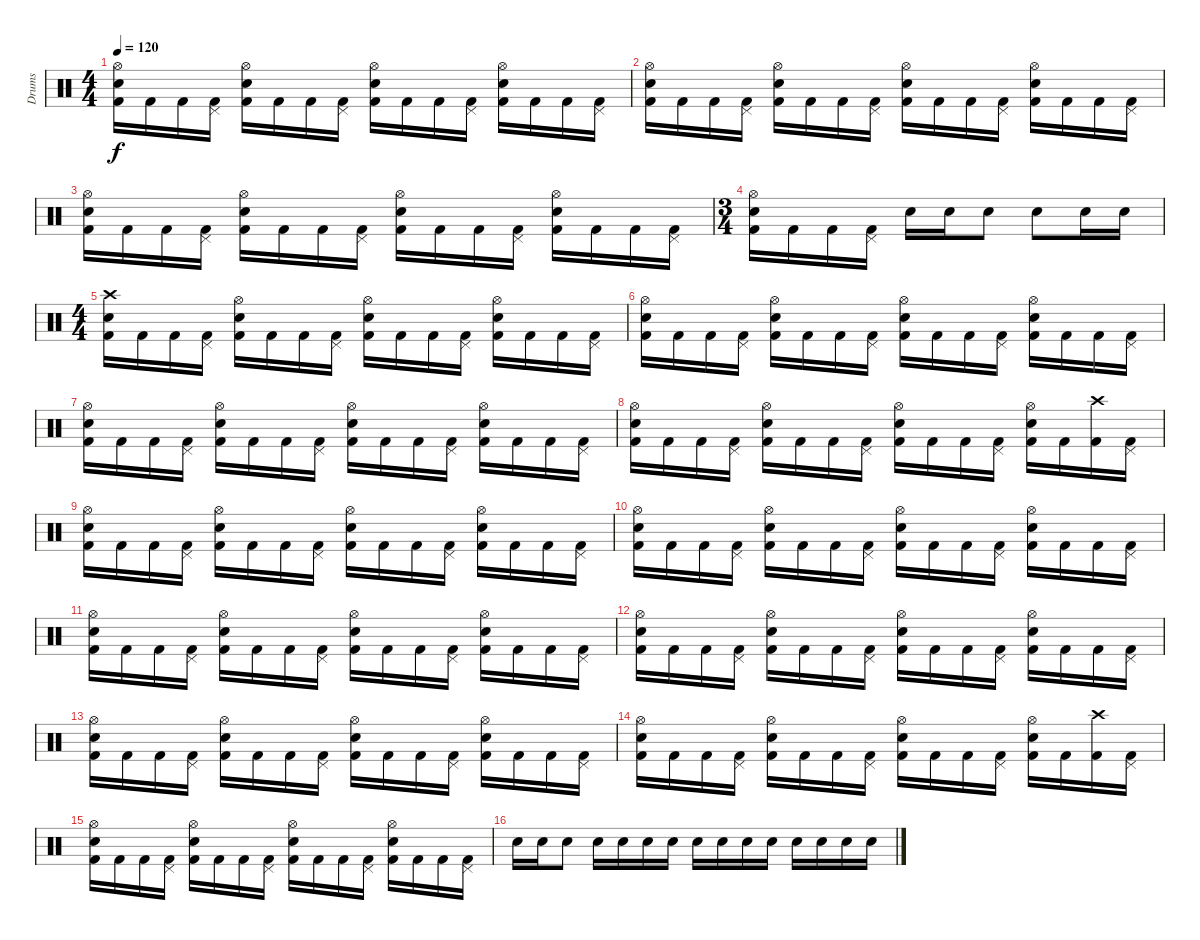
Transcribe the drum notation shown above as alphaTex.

\track ("Drums" "Drums") {instrument percussion}
\staff {score}
\articulation defaults
\ts (4 4)
\tempo 120
\clef neutral
\ks c
("Hi-Hat (open)" "Snare (hit) 2" "Kick (hit) 2").16{dy f} "Kick (hit) 2".16 "Kick (hit) 2".16 ("Pedal Hi-Hat (hit)" "Kick (hit) 2").16 ("Hi-Hat (open)" "Snare (hit) 2" "Kick (hit) 2").16 "Kick (hit) 2".16 "Kick (hit) 2".16 ("Pedal Hi-Hat (hit)" "Kick (hit) 2").16 ("Hi-Hat (open)" "Snare (hit) 2" "Kick (hit) 2").16 "Kick (hit) 2".16 "Kick (hit) 2".16 ("Pedal Hi-Hat (hit)" "Kick (hit) 2").16 ("Hi-Hat (open)" "Snare (hit) 2" "Kick (hit) 2").16 "Kick (hit) 2".16 "Kick (hit) 2".16 ("Pedal Hi-Hat (hit)" "Kick (hit) 2").16 |
("Hi-Hat (open)" "Snare (hit) 2" "Kick (hit) 2").16 "Kick (hit) 2".16 "Kick (hit) 2".16 ("Pedal Hi-Hat (hit)" "Kick (hit) 2").16 ("Hi-Hat (open)" "Snare (hit) 2" "Kick (hit) 2").16 "Kick (hit) 2".16 "Kick (hit) 2".16 ("Pedal Hi-Hat (hit)" "Kick (hit) 2").16 ("Hi-Hat (open)" "Snare (hit) 2" "Kick (hit) 2").16 "Kick (hit) 2".16 "Kick (hit) 2".16 ("Pedal Hi-Hat (hit)" "Kick (hit) 2").16 ("Hi-Hat (open)" "Snare (hit) 2" "Kick (hit) 2").16 "Kick (hit) 2".16 "Kick (hit) 2".16 ("Pedal Hi-Hat (hit)" "Kick (hit) 2").16 |
("Hi-Hat (open)" "Snare (hit) 2" "Kick (hit) 2").16 "Kick (hit) 2".16 "Kick (hit) 2".16 ("Pedal Hi-Hat (hit)" "Kick (hit) 2").16 ("Hi-Hat (open)" "Snare (hit) 2" "Kick (hit) 2").16 "Kick (hit) 2".16 "Kick (hit) 2".16 ("Pedal Hi-Hat (hit)" "Kick (hit) 2").16 ("Hi-Hat (open)" "Snare (hit) 2" "Kick (hit) 2").16 "Kick (hit) 2".16 "Kick (hit) 2".16 ("Pedal Hi-Hat (hit)" "Kick (hit) 2").16 ("Hi-Hat (open)" "Snare (hit) 2" "Kick (hit) 2").16 "Kick (hit) 2".16 "Kick (hit) 2".16 ("Pedal Hi-Hat (hit)" "Kick (hit) 2").16 |
\ts (3 4)
("Hi-Hat (open)" "Snare (hit) 2" "Kick (hit) 2").16 "Kick (hit) 2".16 "Kick (hit) 2".16 ("Pedal Hi-Hat (hit)" "Kick (hit) 2").16 "Electric Snare (hit)".16 "Electric Snare (hit)".16 "Electric Snare (hit)".8 "Electric Snare (hit)".8 "Electric Snare (hit)".16 "Electric Snare (hit)".16 |
\ts (4 4)
("Crash high (hit)" "Snare (hit) 2" "Kick (hit) 2").16 "Kick (hit) 2".16 "Kick (hit) 2".16 ("Pedal Hi-Hat (hit)" "Kick (hit) 2").16 ("Hi-Hat (open)" "Snare (hit) 2" "Kick (hit) 2").16 "Kick (hit) 2".16 "Kick (hit) 2".16 ("Pedal Hi-Hat (hit)" "Kick (hit) 2").16 ("Hi-Hat (open)" "Snare (hit) 2" "Kick (hit) 2").16 "Kick (hit) 2".16 "Kick (hit) 2".16 ("Pedal Hi-Hat (hit)" "Kick (hit) 2").16 ("Hi-Hat (open)" "Snare (hit) 2" "Kick (hit) 2").16 "Kick (hit) 2".16 "Kick (hit) 2".16 ("Pedal Hi-Hat (hit)" "Kick (hit) 2").16 |
("Hi-Hat (open)" "Snare (hit) 2" "Kick (hit) 2").16 "Kick (hit) 2".16 "Kick (hit) 2".16 ("Pedal Hi-Hat (hit)" "Kick (hit) 2").16 ("Hi-Hat (open)" "Snare (hit) 2" "Kick (hit) 2").16 "Kick (hit) 2".16 "Kick (hit) 2".16 ("Pedal Hi-Hat (hit)" "Kick (hit) 2").16 ("Hi-Hat (open)" "Snare (hit) 2" "Kick (hit) 2").16 "Kick (hit) 2".16 "Kick (hit) 2".16 ("Pedal Hi-Hat (hit)" "Kick (hit) 2").16 ("Hi-Hat (open)" "Snare (hit) 2" "Kick (hit) 2").16 "Kick (hit) 2".16 "Kick (hit) 2".16 ("Pedal Hi-Hat (hit)" "Kick (hit) 2").16 |
("Hi-Hat (open)" "Snare (hit) 2" "Kick (hit) 2").16 "Kick (hit) 2".16 "Kick (hit) 2".16 ("Pedal Hi-Hat (hit)" "Kick (hit) 2").16 ("Hi-Hat (open)" "Snare (hit) 2" "Kick (hit) 2").16 "Kick (hit) 2".16 "Kick (hit) 2".16 ("Pedal Hi-Hat (hit)" "Kick (hit) 2").16 ("Hi-Hat (open)" "Snare (hit) 2" "Kick (hit) 2").16 "Kick (hit) 2".16 "Kick (hit) 2".16 ("Pedal Hi-Hat (hit)" "Kick (hit) 2").16 ("Hi-Hat (open)" "Snare (hit) 2" "Kick (hit) 2").16 "Kick (hit) 2".16 "Kick (hit) 2".16 ("Pedal Hi-Hat (hit)" "Kick (hit) 2").16 |
("Hi-Hat (open)" "Snare (hit) 2" "Kick (hit) 2").16 "Kick (hit) 2".16 "Kick (hit) 2".16 ("Pedal Hi-Hat (hit)" "Kick (hit) 2").16 ("Hi-Hat (open)" "Snare (hit) 2" "Kick (hit) 2").16 "Kick (hit) 2".16 "Kick (hit) 2".16 ("Pedal Hi-Hat (hit)" "Kick (hit) 2").16 ("Hi-Hat (open)" "Snare (hit) 2" "Kick (hit) 2").16 "Kick (hit) 2".16 "Kick (hit) 2".16 ("Pedal Hi-Hat (hit)" "Kick (hit) 2").16 ("Hi-Hat (open)" "Snare (hit) 2" "Kick (hit) 2").16 "Kick (hit) 2".16 ("Crash high (hit)" "Kick (hit) 2").16 ("Pedal Hi-Hat (hit)" "Kick (hit) 2").16 |
("Hi-Hat (open)" "Snare (hit) 2" "Kick (hit) 2").16 "Kick (hit) 2".16 "Kick (hit) 2".16 ("Pedal Hi-Hat (hit)" "Kick (hit) 2").16 ("Hi-Hat (open)" "Snare (hit) 2" "Kick (hit) 2").16 "Kick (hit) 2".16 "Kick (hit) 2".16 ("Pedal Hi-Hat (hit)" "Kick (hit) 2").16 ("Hi-Hat (open)" "Snare (hit) 2" "Kick (hit) 2").16 "Kick (hit) 2".16 "Kick (hit) 2".16 ("Pedal Hi-Hat (hit)" "Kick (hit) 2").16 ("Hi-Hat (open)" "Snare (hit) 2" "Kick (hit) 2").16 "Kick (hit) 2".16 "Kick (hit) 2".16 ("Pedal Hi-Hat (hit)" "Kick (hit) 2").16 |
("Hi-Hat (open)" "Snare (hit) 2" "Kick (hit) 2").16 "Kick (hit) 2".16 "Kick (hit) 2".16 ("Pedal Hi-Hat (hit)" "Kick (hit) 2").16 ("Hi-Hat (open)" "Snare (hit) 2" "Kick (hit) 2").16 "Kick (hit) 2".16 "Kick (hit) 2".16 ("Pedal Hi-Hat (hit)" "Kick (hit) 2").16 ("Hi-Hat (open)" "Snare (hit) 2" "Kick (hit) 2").16 "Kick (hit) 2".16 "Kick (hit) 2".16 ("Pedal Hi-Hat (hit)" "Kick (hit) 2").16 ("Hi-Hat (open)" "Snare (hit) 2" "Kick (hit) 2").16 "Kick (hit) 2".16 "Kick (hit) 2".16 ("Pedal Hi-Hat (hit)" "Kick (hit) 2").16 |
("Hi-Hat (open)" "Snare (hit) 2" "Kick (hit) 2").16 "Kick (hit) 2".16 "Kick (hit) 2".16 ("Pedal Hi-Hat (hit)" "Kick (hit) 2").16 ("Hi-Hat (open)" "Snare (hit) 2" "Kick (hit) 2").16 "Kick (hit) 2".16 "Kick (hit) 2".16 ("Pedal Hi-Hat (hit)" "Kick (hit) 2").16 ("Hi-Hat (open)" "Snare (hit) 2" "Kick (hit) 2").16 "Kick (hit) 2".16 "Kick (hit) 2".16 ("Pedal Hi-Hat (hit)" "Kick (hit) 2").16 ("Hi-Hat (open)" "Snare (hit) 2" "Kick (hit) 2").16 "Kick (hit) 2".16 "Kick (hit) 2".16 ("Pedal Hi-Hat (hit)" "Kick (hit) 2").16 |
("Hi-Hat (open)" "Snare (hit) 2" "Kick (hit) 2").16 "Kick (hit) 2".16 "Kick (hit) 2".16 ("Pedal Hi-Hat (hit)" "Kick (hit) 2").16 ("Hi-Hat (open)" "Snare (hit) 2" "Kick (hit) 2").16 "Kick (hit) 2".16 "Kick (hit) 2".16 ("Pedal Hi-Hat (hit)" "Kick (hit) 2").16 ("Hi-Hat (open)" "Snare (hit) 2" "Kick (hit) 2").16 "Kick (hit) 2".16 "Kick (hit) 2".16 ("Pedal Hi-Hat (hit)" "Kick (hit) 2").16 ("Hi-Hat (open)" "Snare (hit) 2" "Kick (hit) 2").16 "Kick (hit) 2".16 "Kick (hit) 2".16 ("Pedal Hi-Hat (hit)" "Kick (hit) 2").16 |
("Hi-Hat (open)" "Snare (hit) 2" "Kick (hit) 2").16 "Kick (hit) 2".16 "Kick (hit) 2".16 ("Pedal Hi-Hat (hit)" "Kick (hit) 2").16 ("Hi-Hat (open)" "Snare (hit) 2" "Kick (hit) 2").16 "Kick (hit) 2".16 "Kick (hit) 2".16 ("Pedal Hi-Hat (hit)" "Kick (hit) 2").16 ("Hi-Hat (open)" "Snare (hit) 2" "Kick (hit) 2").16 "Kick (hit) 2".16 "Kick (hit) 2".16 ("Pedal Hi-Hat (hit)" "Kick (hit) 2").16 ("Hi-Hat (open)" "Snare (hit) 2" "Kick (hit) 2").16 "Kick (hit) 2".16 "Kick (hit) 2".16 ("Pedal Hi-Hat (hit)" "Kick (hit) 2").16 |
("Hi-Hat (open)" "Snare (hit) 2" "Kick (hit) 2").16 "Kick (hit) 2".16 "Kick (hit) 2".16 ("Pedal Hi-Hat (hit)" "Kick (hit) 2").16 ("Hi-Hat (open)" "Snare (hit) 2" "Kick (hit) 2").16 "Kick (hit) 2".16 "Kick (hit) 2".16 ("Pedal Hi-Hat (hit)" "Kick (hit) 2").16 ("Hi-Hat (open)" "Snare (hit) 2" "Kick (hit) 2").16 "Kick (hit) 2".16 "Kick (hit) 2".16 ("Pedal Hi-Hat (hit)" "Kick (hit) 2").16 ("Hi-Hat (open)" "Snare (hit) 2" "Kick (hit) 2").16 "Kick (hit) 2".16 ("Crash high (hit)" "Kick (hit) 2").16 ("Pedal Hi-Hat (hit)" "Kick (hit) 2").16 |
("Hi-Hat (open)" "Snare (hit) 2" "Kick (hit) 2").16 "Kick (hit) 2".16 "Kick (hit) 2".16 ("Pedal Hi-Hat (hit)" "Kick (hit) 2").16 ("Hi-Hat (open)" "Snare (hit) 2" "Kick (hit) 2").16 "Kick (hit) 2".16 "Kick (hit) 2".16 ("Pedal Hi-Hat (hit)" "Kick (hit) 2").16 ("Hi-Hat (open)" "Snare (hit) 2" "Kick (hit) 2").16 "Kick (hit) 2".16 "Kick (hit) 2".16 ("Pedal Hi-Hat (hit)" "Kick (hit) 2").16 ("Hi-Hat (open)" "Snare (hit) 2" "Kick (hit) 2").16 "Kick (hit) 2".16 "Kick (hit) 2".16 ("Pedal Hi-Hat (hit)" "Kick (hit) 2").16 |
"Electric Snare (hit)".16 "Electric Snare (hit)".16 "Electric Snare (hit)".8 "Electric Snare (hit)".16 "Electric Snare (hit)".16 "Electric Snare (hit)".16 "Electric Snare (hit)".16 "Snare (hit) 2".16 "Snare (hit) 2".16 "Snare (hit) 2".16 "Snare (hit) 2".16 "Electric Snare (hit)".16 "Electric Snare (hit)".16 "Electric Snare (hit)".16 "Electric Snare (hit)".16
